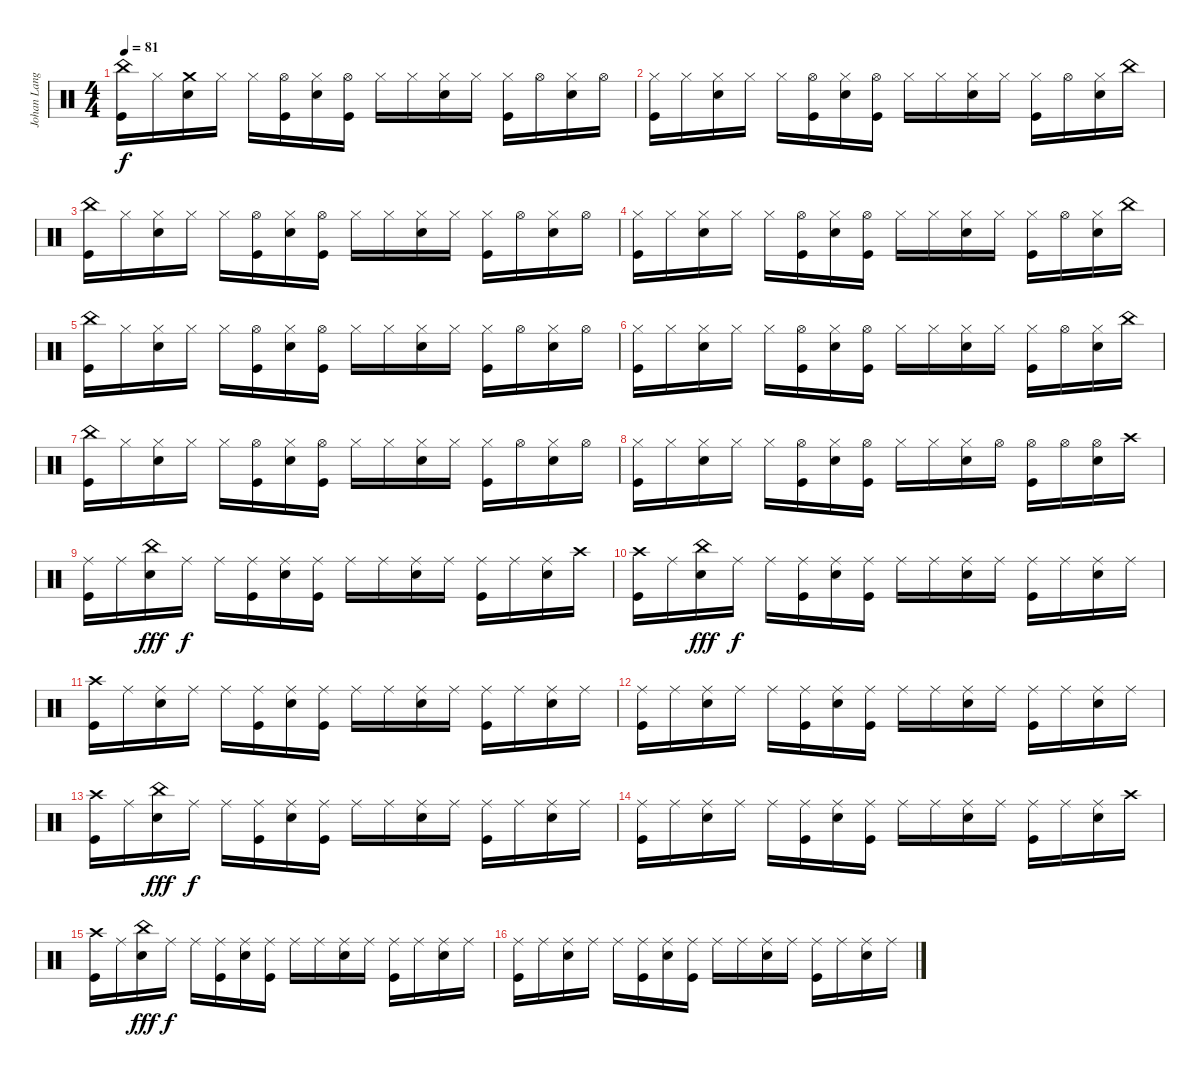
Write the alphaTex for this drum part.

\track ("Johan Langell - drums" "Johan Lang") {instrument percussion}
\staff {score}
\articulation defaults
\ts (4 4)
\tempo 81
\clef neutral
\ks c
("China (hit)" "Kick (hit)").16{dy f} "Hi-Hat (closed)".16 ("Crash medium (hit)" "Electric Snare (hit)").16 "Hi-Hat (closed)".16 "Hi-Hat (closed)".16 ("Hi-Hat (open)" "Kick (hit)").16 ("Hi-Hat (closed)" "Electric Snare (hit)").16 ("Hi-Hat (open)" "Kick (hit)").16 "Hi-Hat (closed)".16 "Hi-Hat (closed)".16 ("Hi-Hat (closed)" "Electric Snare (hit)").16 "Hi-Hat (closed)".16 ("Hi-Hat (closed)" "Kick (hit)").16 "Hi-Hat (open)".16 ("Hi-Hat (closed)" "Electric Snare (hit)").16 "Hi-Hat (open)".16 |
("Hi-Hat (closed)" "Kick (hit)").16 "Hi-Hat (closed)".16 ("Hi-Hat (closed)" "Electric Snare (hit)").16 "Hi-Hat (closed)".16 "Hi-Hat (closed)".16 ("Hi-Hat (open)" "Kick (hit)").16 ("Hi-Hat (closed)" "Electric Snare (hit)").16 ("Hi-Hat (open)" "Kick (hit)").16 "Hi-Hat (closed)".16 "Hi-Hat (closed)".16 ("Hi-Hat (closed)" "Electric Snare (hit)").16 "Hi-Hat (closed)".16 ("Hi-Hat (closed)" "Kick (hit)").16 "Hi-Hat (open)".16 ("Hi-Hat (closed)" "Electric Snare (hit)").16 "China (hit)".16 |
("China (hit)" "Kick (hit)").16 "Hi-Hat (closed)".16 ("Hi-Hat (closed)" "Electric Snare (hit)").16 "Hi-Hat (closed)".16 "Hi-Hat (closed)".16 ("Hi-Hat (open)" "Kick (hit)").16 ("Hi-Hat (closed)" "Electric Snare (hit)").16 ("Hi-Hat (open)" "Kick (hit)").16 "Hi-Hat (closed)".16 "Hi-Hat (closed)".16 ("Hi-Hat (closed)" "Electric Snare (hit)").16 "Hi-Hat (closed)".16 ("Hi-Hat (closed)" "Kick (hit)").16 "Hi-Hat (open)".16 ("Hi-Hat (closed)" "Electric Snare (hit)").16 "Hi-Hat (open)".16 |
("Hi-Hat (closed)" "Kick (hit)").16 "Hi-Hat (closed)".16 ("Hi-Hat (closed)" "Electric Snare (hit)").16 "Hi-Hat (closed)".16 "Hi-Hat (closed)".16 ("Hi-Hat (open)" "Kick (hit)").16 ("Hi-Hat (closed)" "Electric Snare (hit)").16 ("Hi-Hat (open)" "Kick (hit)").16 "Hi-Hat (closed)".16 "Hi-Hat (closed)".16 ("Hi-Hat (closed)" "Electric Snare (hit)").16 "Hi-Hat (closed)".16 ("Hi-Hat (closed)" "Kick (hit)").16 "Hi-Hat (open)".16 ("Hi-Hat (closed)" "Electric Snare (hit)").16 "China (hit)".16 |
("China (hit)" "Kick (hit)").16 "Hi-Hat (closed)".16 ("Hi-Hat (closed)" "Electric Snare (hit)").16 "Hi-Hat (closed)".16 "Hi-Hat (closed)".16 ("Hi-Hat (open)" "Kick (hit)").16 ("Hi-Hat (closed)" "Electric Snare (hit)").16 ("Hi-Hat (open)" "Kick (hit)").16 "Hi-Hat (closed)".16 "Hi-Hat (closed)".16 ("Hi-Hat (closed)" "Electric Snare (hit)").16 "Hi-Hat (closed)".16 ("Hi-Hat (closed)" "Kick (hit)").16 "Hi-Hat (open)".16 ("Hi-Hat (closed)" "Electric Snare (hit)").16 "Hi-Hat (open)".16 |
("Hi-Hat (closed)" "Kick (hit)").16 "Hi-Hat (closed)".16 ("Hi-Hat (closed)" "Electric Snare (hit)").16 "Hi-Hat (closed)".16 "Hi-Hat (closed)".16 ("Hi-Hat (open)" "Kick (hit)").16 ("Hi-Hat (closed)" "Electric Snare (hit)").16 ("Hi-Hat (open)" "Kick (hit)").16 "Hi-Hat (closed)".16 "Hi-Hat (closed)".16 ("Hi-Hat (closed)" "Electric Snare (hit)").16 "Hi-Hat (closed)".16 ("Hi-Hat (closed)" "Kick (hit)").16 "Hi-Hat (open)".16 ("Hi-Hat (closed)" "Electric Snare (hit)").16 "China (hit)".16 |
("China (hit)" "Kick (hit)").16 "Hi-Hat (closed)".16 ("Hi-Hat (closed)" "Electric Snare (hit)").16 "Hi-Hat (closed)".16 "Hi-Hat (closed)".16 ("Hi-Hat (open)" "Kick (hit)").16 ("Hi-Hat (closed)" "Electric Snare (hit)").16 ("Hi-Hat (open)" "Kick (hit)").16 "Hi-Hat (closed)".16 "Hi-Hat (closed)".16 ("Hi-Hat (closed)" "Electric Snare (hit)").16 "Hi-Hat (closed)".16 ("Hi-Hat (closed)" "Kick (hit)").16 "Hi-Hat (open)".16 ("Hi-Hat (closed)" "Electric Snare (hit)").16 "Hi-Hat (open)".16 |
("Hi-Hat (closed)" "Kick (hit)").16 "Hi-Hat (closed)".16 ("Hi-Hat (closed)" "Electric Snare (hit)").16 "Hi-Hat (closed)".16 "Hi-Hat (closed)".16 ("Hi-Hat (open)" "Kick (hit)").16 ("Hi-Hat (closed)" "Electric Snare (hit)").16 ("Hi-Hat (open)" "Kick (hit)").16 "Hi-Hat (closed)".16 "Hi-Hat (closed)".16 ("Hi-Hat (closed)" "Electric Snare (hit)").16 "Hi-Hat (open)".16 ("Hi-Hat (open)" "Kick (hit)").16 "Hi-Hat (open)".16 ("Hi-Hat (open)" "Electric Snare (hit)").16 "Crash high (hit)".16 |
("Ride (middle)" "Kick (hit)").16 "Ride (middle)".16 ("China (hit)" "Electric Snare (hit)").16{dy fff} "Ride (middle)".16{dy f} "Ride (middle)".16 ("Ride (middle)" "Kick (hit)").16 ("Ride (middle)" "Electric Snare (hit)").16 ("Ride (middle)" "Kick (hit)").16 "Ride (middle)".16 "Ride (middle)".16 ("Ride (middle)" "Electric Snare (hit)").16 "Ride (middle)".16 ("Ride (middle)" "Kick (hit)").16 "Ride (middle)".16 ("Ride (middle)" "Electric Snare (hit)").16 "Crash high (hit)".16 |
("Crash high (hit)" "Kick (hit)").16 "Ride (middle)".16 ("China (hit)" "Electric Snare (hit)").16{dy fff} "Ride (middle)".16{dy f} "Ride (middle)".16 ("Ride (middle)" "Kick (hit)").16 ("Ride (middle)" "Electric Snare (hit)").16 ("Ride (middle)" "Kick (hit)").16 "Ride (middle)".16 "Ride (middle)".16 ("Ride (middle)" "Electric Snare (hit)").16 "Ride (middle)".16 ("Ride (middle)" "Kick (hit)").16 "Ride (middle)".16 ("Ride (middle)" "Electric Snare (hit)").16 "Ride (middle)".16 |
("Crash high (hit)" "Kick (hit)").16 "Ride (middle)".16 ("Ride (middle)" "Electric Snare (hit)").16 "Ride (middle)".16 "Ride (middle)".16 ("Ride (middle)" "Kick (hit)").16 ("Ride (middle)" "Electric Snare (hit)").16 ("Ride (middle)" "Kick (hit)").16 "Ride (middle)".16 "Ride (middle)".16 ("Ride (middle)" "Electric Snare (hit)").16 "Ride (middle)".16 ("Ride (middle)" "Kick (hit)").16 "Ride (middle)".16 ("Ride (middle)" "Electric Snare (hit)").16 "Ride (middle)".16 |
("Ride (middle)" "Kick (hit)").16 "Ride (middle)".16 ("Ride (middle)" "Electric Snare (hit)").16 "Ride (middle)".16 "Ride (middle)".16 ("Ride (middle)" "Kick (hit)").16 ("Ride (middle)" "Electric Snare (hit)").16 ("Ride (middle)" "Kick (hit)").16 "Ride (middle)".16 "Ride (middle)".16 ("Ride (middle)" "Electric Snare (hit)").16 "Ride (middle)".16 ("Ride (middle)" "Kick (hit)").16 "Ride (middle)".16 ("Ride (middle)" "Electric Snare (hit)").16 "Ride (middle)".16 |
("Crash high (hit)" "Kick (hit)").16 "Ride (middle)".16 ("China (hit)" "Electric Snare (hit)").16{dy fff} "Ride (middle)".16{dy f} "Ride (middle)".16 ("Ride (middle)" "Kick (hit)").16 ("Ride (middle)" "Electric Snare (hit)").16 ("Ride (middle)" "Kick (hit)").16 "Ride (middle)".16 "Ride (middle)".16 ("Ride (middle)" "Electric Snare (hit)").16 "Ride (middle)".16 ("Ride (middle)" "Kick (hit)").16 "Ride (middle)".16 ("Ride (middle)" "Electric Snare (hit)").16 "Ride (middle)".16 |
("Ride (middle)" "Kick (hit)").16 "Ride (middle)".16 ("Ride (middle)" "Electric Snare (hit)").16 "Ride (middle)".16 "Ride (middle)".16 ("Ride (middle)" "Kick (hit)").16 ("Ride (middle)" "Electric Snare (hit)").16 ("Ride (middle)" "Kick (hit)").16 "Ride (middle)".16 "Ride (middle)".16 ("Ride (middle)" "Electric Snare (hit)").16 "Ride (middle)".16 ("Ride (middle)" "Kick (hit)").16 "Ride (middle)".16 ("Ride (middle)" "Electric Snare (hit)").16 "Crash high (hit)".16 |
("Crash high (hit)" "Kick (hit)").16 "Ride (middle)".16 ("China (hit)" "Electric Snare (hit)").16{dy fff} "Ride (middle)".16{dy f} "Ride (middle)".16 ("Ride (middle)" "Kick (hit)").16 ("Ride (middle)" "Electric Snare (hit)").16 ("Ride (middle)" "Kick (hit)").16 "Ride (middle)".16 "Ride (middle)".16 ("Ride (middle)" "Electric Snare (hit)").16 "Ride (middle)".16 ("Ride (middle)" "Kick (hit)").16 "Ride (middle)".16 ("Ride (middle)" "Electric Snare (hit)").16 "Ride (middle)".16 |
("Ride (middle)" "Kick (hit)").16 "Ride (middle)".16 ("Ride (middle)" "Electric Snare (hit)").16 "Ride (middle)".16 "Ride (middle)".16 ("Ride (middle)" "Kick (hit)").16 ("Ride (middle)" "Electric Snare (hit)").16 ("Ride (middle)" "Kick (hit)").16 "Ride (middle)".16 "Ride (middle)".16 ("Ride (middle)" "Electric Snare (hit)").16 "Ride (middle)".16 ("Ride (middle)" "Kick (hit)").16 "Ride (middle)".16 ("Ride (middle)" "Electric Snare (hit)").16 "Ride (middle)".16
